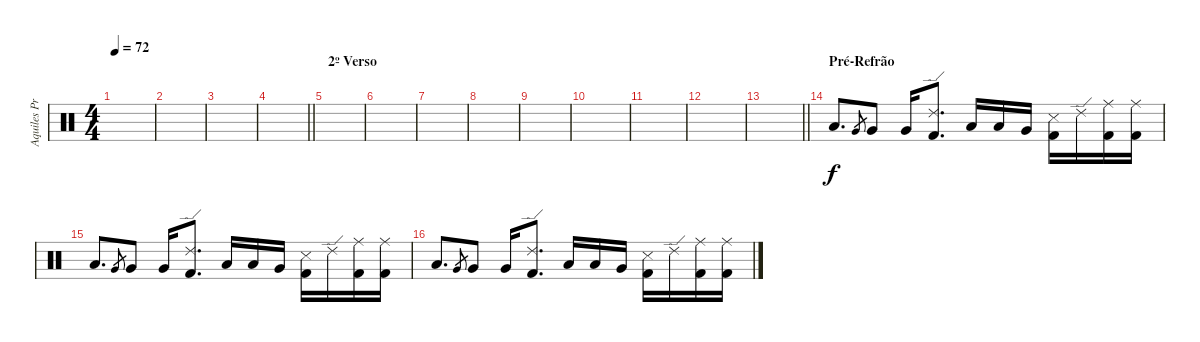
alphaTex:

\track ("Aquiles Priester" "Aquiles Pr") {instrument percussion}
\staff {score}
\articulation defaults
\ts (4 4)
\tempo 72
\clef neutral
\ks c
|
|
|
\barLineRight lightlight
|
\section ("" "2º Verso")
|
|
|
|
|
|
|
|
\barLineRight lightlight
|
\section ("" "Pré-Refrão")
"Low Tom (hit)".8{d} "Very Low Tom (hit)".8{gr} "Very Low Tom (hit)".8 "Very Low Tom (hit)".16 ("Ride (edge) 2" "Kick (hit) 2").8{d} "Low Tom (hit)".16 "Low Tom (hit)".16 "Very Low Tom (hit)".16 ("Snare (side stick) 3" "Kick (hit) 2").16 "Ride (edge) 2".16 ("Ride (middle)" "Kick (hit) 2").16 ("Ride (middle)" "Kick (hit) 2").16 |
"Low Tom (hit)".8{d} "Very Low Tom (hit)".8{gr} "Very Low Tom (hit)".8 "Very Low Tom (hit)".16 ("Ride (edge) 2" "Kick (hit) 2").8{d} "Low Tom (hit)".16 "Low Tom (hit)".16 "Very Low Tom (hit)".16 ("Snare (side stick) 3" "Kick (hit) 2").16 "Ride (edge) 2".16 ("Ride (middle)" "Kick (hit) 2").16 ("Ride (middle)" "Kick (hit) 2").16 |
"Low Tom (hit)".8{d} "Very Low Tom (hit)".8{gr} "Very Low Tom (hit)".8 "Very Low Tom (hit)".16 ("Ride (edge) 2" "Kick (hit) 2").8{d} "Low Tom (hit)".16 "Low Tom (hit)".16 "Very Low Tom (hit)".16 ("Snare (side stick) 3" "Kick (hit) 2").16 "Ride (edge) 2".16 ("Ride (middle)" "Kick (hit) 2").16 ("Ride (middle)" "Kick (hit) 2").16
